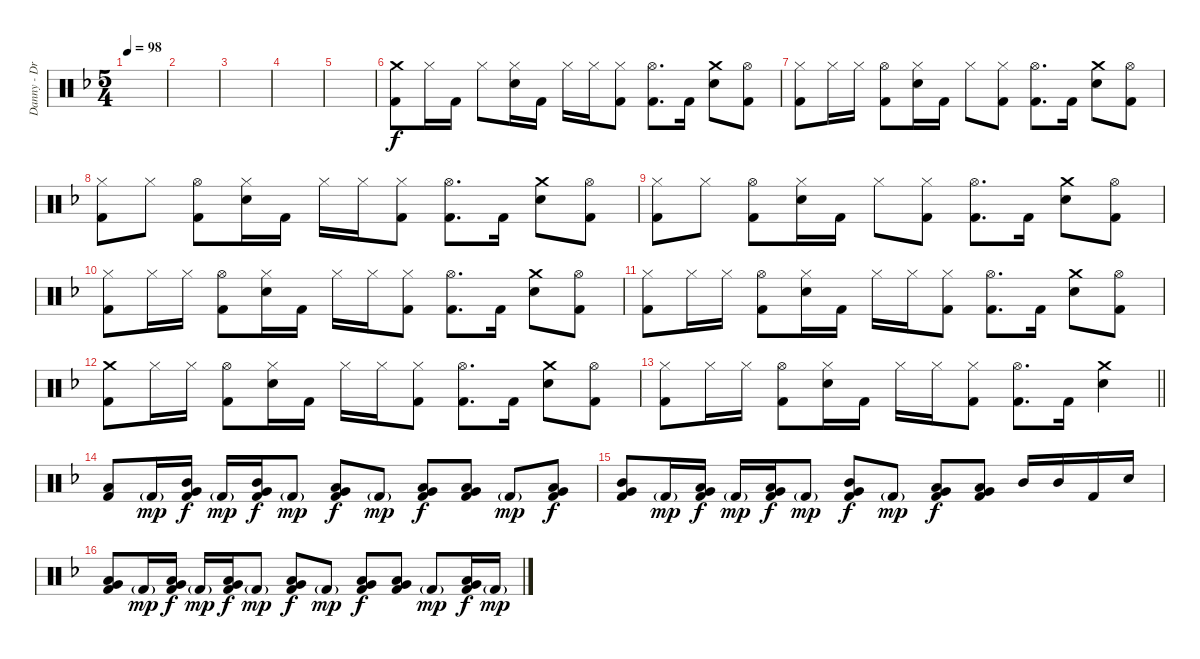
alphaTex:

\track ("Danny - Drums" "Danny - Dr") {instrument percussion}
\staff {score}
\articulation defaults
\ts (5 4)
\tempo 98
\clef neutral
\ks dminor
|
|
|
|
|
("Crash medium (hit)" "Kick (hit) 2").8{volume 12} "Hi-Hat (closed)".16 "Kick (hit) 2".16 "Hi-Hat (closed)".8 ("Hi-Hat (closed)" "Electric Snare (hit)").16 "Kick (hit) 2".16 "Hi-Hat (closed)".16 "Hi-Hat (closed)".16 ("Hi-Hat (closed)" "Kick (hit) 2").8 ("Hi-Hat (open)" "Kick (hit) 2").8{d} "Kick (hit) 2".16 ("Crash medium (hit)" "Electric Snare (hit)").8 ("Hi-Hat (open)" "Kick (hit) 2").8 |
("Hi-Hat (closed)" "Kick (hit) 2").8 "Hi-Hat (closed)".16 "Hi-Hat (closed)".16 ("Hi-Hat (open)" "Kick (hit) 2").8 ("Hi-Hat (closed)" "Electric Snare (hit)").16 "Kick (hit) 2".16 "Hi-Hat (closed)".8 ("Hi-Hat (closed)" "Kick (hit) 2").8 ("Hi-Hat (open)" "Kick (hit) 2").8{d} "Kick (hit) 2".16 ("Crash medium (hit)" "Electric Snare (hit)").8 ("Hi-Hat (open)" "Kick (hit) 2").8 |
("Hi-Hat (closed)" "Kick (hit) 2").8 "Hi-Hat (closed)".8 ("Hi-Hat (open)" "Kick (hit) 2").8 ("Hi-Hat (closed)" "Electric Snare (hit)").16 "Kick (hit) 2".16 "Hi-Hat (closed)".16 "Hi-Hat (closed)".16 ("Hi-Hat (closed)" "Kick (hit) 2").8 ("Hi-Hat (open)" "Kick (hit) 2").8{d} "Kick (hit) 2".16 ("Crash medium (hit)" "Electric Snare (hit)").8 ("Hi-Hat (open)" "Kick (hit) 2").8 |
("Hi-Hat (closed)" "Kick (hit) 2").8 "Hi-Hat (closed)".8 ("Hi-Hat (open)" "Kick (hit) 2").8 ("Hi-Hat (closed)" "Electric Snare (hit)").16 "Kick (hit) 2".16 "Hi-Hat (closed)".8 ("Hi-Hat (closed)" "Kick (hit) 2").8 ("Hi-Hat (open)" "Kick (hit) 2").8{d} "Kick (hit) 2".16 ("Crash medium (hit)" "Electric Snare (hit)").8 ("Hi-Hat (open)" "Kick (hit) 2").8 |
("Hi-Hat (closed)" "Kick (hit) 2").8 "Hi-Hat (closed)".16 "Hi-Hat (closed)".16 ("Hi-Hat (open)" "Kick (hit) 2").8 ("Hi-Hat (closed)" "Electric Snare (hit)").16 "Kick (hit) 2".16 "Hi-Hat (closed)".16 "Hi-Hat (closed)".16 ("Hi-Hat (closed)" "Kick (hit) 2").8 ("Hi-Hat (open)" "Kick (hit) 2").8{d} "Kick (hit) 2".16 ("Crash medium (hit)" "Electric Snare (hit)").8 ("Hi-Hat (open)" "Kick (hit) 2").8 |
("Hi-Hat (closed)" "Kick (hit) 2").8 "Hi-Hat (closed)".16 "Hi-Hat (closed)".16 ("Hi-Hat (open)" "Kick (hit) 2").8 ("Hi-Hat (closed)" "Electric Snare (hit)").16 "Kick (hit) 2".16 "Hi-Hat (closed)".16 "Hi-Hat (closed)".16 ("Hi-Hat (closed)" "Kick (hit) 2").8 ("Hi-Hat (open)" "Kick (hit) 2").8{d} "Kick (hit) 2".16 ("Crash medium (hit)" "Electric Snare (hit)").8 ("Hi-Hat (open)" "Kick (hit) 2").8 |
("Crash medium (hit)" "Kick (hit) 2").8 "Hi-Hat (closed)".16 "Hi-Hat (closed)".16 ("Hi-Hat (open)" "Kick (hit) 2").8 ("Hi-Hat (closed)" "Electric Snare (hit)").16 "Kick (hit) 2".16 "Hi-Hat (closed)".16 "Hi-Hat (closed)".16 ("Hi-Hat (closed)" "Kick (hit) 2").8 ("Hi-Hat (open)" "Kick (hit) 2").8{d} "Kick (hit) 2".16 ("Crash medium (hit)" "Electric Snare (hit)").8 ("Hi-Hat (open)" "Kick (hit) 2").8 |
\barLineRight lightlight
("Hi-Hat (closed)" "Kick (hit) 2").8 "Hi-Hat (closed)".16 "Hi-Hat (closed)".16 ("Hi-Hat (open)" "Kick (hit) 2").8 ("Hi-Hat (closed)" "Electric Snare (hit)").16 "Kick (hit) 2".16 "Hi-Hat (closed)".16 "Hi-Hat (closed)".16 ("Hi-Hat (closed)" "Kick (hit) 2").8 ("Hi-Hat (open)" "Kick (hit) 2").8{d} "Kick (hit) 2".16 ("Crash medium (hit)" "Electric Snare (hit)").4 |
("Low Tom (hit)" "Kick (hit) 2").8 "Kick (hit) 2"{g}.16{dy mp} ("Mid Tom (hit)" "Very Low Tom (hit)" "Kick (hit) 2").16{dy f} "Kick (hit) 2"{g}.16{dy mp} ("Mid Tom (hit)" "Very Low Tom (hit)" "Kick (hit) 2").16{dy f} "Kick (hit) 2"{g}.8{dy mp} ("Low Tom (hit)" "Very Low Tom (hit)" "Kick (hit) 2").8{dy f} "Kick (hit) 2"{g}.8{dy mp} ("Low Tom (hit)" "Very Low Tom (hit)" "Kick (hit) 2").8{dy f} ("Low Tom (hit)" "Very Low Tom (hit)" "Kick (hit) 2").8 "Kick (hit) 2"{g}.8{dy mp} ("Low Tom (hit)" "Very Low Tom (hit)" "Kick (hit) 2").8{dy f} |
("Mid Tom (hit)" "Very Low Tom (hit)" "Kick (hit) 2").8 "Kick (hit) 2"{g}.16{dy mp} ("Low Tom (hit)" "Very Low Tom (hit)" "Kick (hit) 2").16{dy f} "Kick (hit) 2"{g}.16{dy mp} ("Low Tom (hit)" "Very Low Tom (hit)" "Kick (hit) 2").16{dy f} "Kick (hit) 2"{g}.8{dy mp} ("Mid Tom (hit)" "Very Low Tom (hit)" "Kick (hit) 2").8{dy f} "Kick (hit) 2"{g}.8{dy mp} ("Low Tom (hit)" "Very Low Tom (hit)" "Kick (hit) 2").8{dy f} ("Low Tom (hit)" "Very Low Tom (hit)" "Kick (hit) 2").8 "Mid Tom (hit)".16 "Mid Tom (hit)".16 "Kick (hit) 2".16 "Electric Snare (hit)".16 |
("Low Tom (hit)" "Very Low Tom (hit)" "Kick (hit) 2").8 "Kick (hit) 2"{g}.16{dy mp} ("Low Tom (hit)" "Very Low Tom (hit)" "Kick (hit) 2").16{dy f} "Kick (hit) 2"{g}.16{dy mp} ("Low Tom (hit)" "Very Low Tom (hit)" "Kick (hit) 2").16{dy f} "Kick (hit) 2"{g}.8{dy mp} ("Low Tom (hit)" "Very Low Tom (hit)" "Kick (hit) 2").8{dy f} "Kick (hit) 2"{g}.8{dy mp} ("Low Tom (hit)" "Very Low Tom (hit)" "Kick (hit) 2").8{dy f} ("Low Tom (hit)" "Very Low Tom (hit)" "Kick (hit) 2").8 "Kick (hit) 2"{g}.8{dy mp} ("Low Tom (hit)" "Very Low Tom (hit)" "Kick (hit) 2").16{dy f} "Kick (hit) 2"{g}.16{dy mp}
